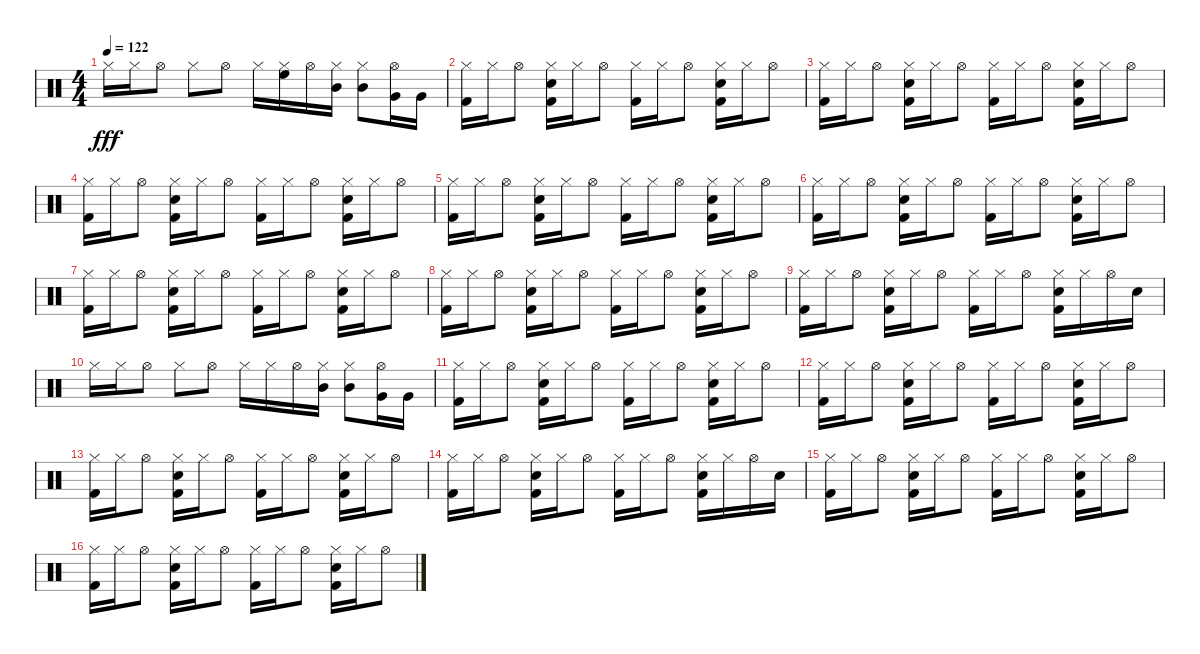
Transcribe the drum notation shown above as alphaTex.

\track "" {mute instrument percussion}
\staff {score}
\articulation defaults
\ts (4 4)
\tempo 122
\clef neutral
\ks c "Hi-Hat (closed)".16{dy fff} "Hi-Hat (closed)".16 "Hi-Hat (open)".8 "Hi-Hat (closed)".8 "Hi-Hat (open)".8 "Hi-Hat (closed)".16
("Hi-Hat (closed)" "High Floor Tom (hit)").16 "Hi-Hat (open)".16 ("Hi-Hat (closed)" "Mid Tom (hit)").16 ("Hi-Hat (closed)" "Mid Tom (hit)").8 ("Very Low Tom (hit)" "Hi-Hat (open)").16 "Very Low Tom (hit)".16 |
("Kick (hit) 2" "Hi-Hat (closed)").16 "Hi-Hat (closed)".16 "Hi-Hat (open)".8 ("Kick (hit) 2" "Snare (hit) 2" "Hi-Hat (closed)").16 "Hi-Hat (closed)".16 "Hi-Hat (open)".8 ("Kick (hit) 2" "Hi-Hat (closed)").16 "Hi-Hat (closed)".16 "Hi-Hat (open)".8 ("Kick (hit) 2" "Snare (hit) 2" "Hi-Hat (closed)").16 "Hi-Hat (closed)".16 "Hi-Hat (open)".8 |
("Kick (hit) 2" "Hi-Hat (closed)").16 "Hi-Hat (closed)".16 "Hi-Hat (open)".8 ("Kick (hit) 2" "Snare (hit) 2" "Hi-Hat (closed)").16 "Hi-Hat (closed)".16 "Hi-Hat (open)".8 ("Kick (hit) 2" "Hi-Hat (closed)").16 "Hi-Hat (closed)".16 "Hi-Hat (open)".8 ("Kick (hit) 2" "Snare (hit) 2" "Hi-Hat (closed)").16 "Hi-Hat (closed)".16 "Hi-Hat (open)".8 |
("Kick (hit) 2" "Hi-Hat (closed)").16 "Hi-Hat (closed)".16 "Hi-Hat (open)".8 ("Kick (hit) 2" "Snare (hit) 2" "Hi-Hat (closed)").16 "Hi-Hat (closed)".16 "Hi-Hat (open)".8 ("Kick (hit) 2" "Hi-Hat (closed)").16 "Hi-Hat (closed)".16 "Hi-Hat (open)".8 ("Kick (hit) 2" "Snare (hit) 2" "Hi-Hat (closed)").16 "Hi-Hat (closed)".16 "Hi-Hat (open)".8 |
("Kick (hit) 2" "Hi-Hat (closed)").16 "Hi-Hat (closed)".16 "Hi-Hat (open)".8 ("Kick (hit) 2" "Snare (hit) 2" "Hi-Hat (closed)").16 "Hi-Hat (closed)".16 "Hi-Hat (open)".8 ("Kick (hit) 2" "Hi-Hat (closed)").16 "Hi-Hat (closed)".16 "Hi-Hat (open)".8 ("Kick (hit) 2" "Snare (hit) 2" "Hi-Hat (closed)").16 "Hi-Hat (closed)".16 "Hi-Hat (open)".8 |
("Kick (hit) 2" "Hi-Hat (closed)").16 "Hi-Hat (closed)".16 "Hi-Hat (open)".8 ("Kick (hit) 2" "Snare (hit) 2" "Hi-Hat (closed)").16 "Hi-Hat (closed)".16 "Hi-Hat (open)".8 ("Kick (hit) 2" "Hi-Hat (closed)").16 "Hi-Hat (closed)".16 "Hi-Hat (open)".8 ("Kick (hit) 2" "Snare (hit) 2" "Hi-Hat (closed)").16 "Hi-Hat (closed)".16 "Hi-Hat (open)".8 |
("Kick (hit) 2" "Hi-Hat (closed)").16 "Hi-Hat (closed)".16 "Hi-Hat (open)".8 ("Kick (hit) 2" "Snare (hit) 2" "Hi-Hat (closed)").16 "Hi-Hat (closed)".16 "Hi-Hat (open)".8 ("Kick (hit) 2" "Hi-Hat (closed)").16 "Hi-Hat (closed)".16 "Hi-Hat (open)".8 ("Kick (hit) 2" "Snare (hit) 2" "Hi-Hat (closed)").16 "Hi-Hat (closed)".16 "Hi-Hat (open)".8 |
("Kick (hit) 2" "Hi-Hat (closed)").16 "Hi-Hat (closed)".16 "Hi-Hat (open)".8 ("Kick (hit) 2" "Snare (hit) 2" "Hi-Hat (closed)").16 "Hi-Hat (closed)".16 "Hi-Hat (open)".8 ("Kick (hit) 2" "Hi-Hat (closed)").16 "Hi-Hat (closed)".16 "Hi-Hat (open)".8 ("Kick (hit) 2" "Snare (hit) 2" "Hi-Hat (closed)").16 "Hi-Hat (closed)".16 "Hi-Hat (open)".8 |
("Kick (hit) 2" "Hi-Hat (closed)").16 "Hi-Hat (closed)".16 "Hi-Hat (open)".8 ("Kick (hit) 2" "Snare (hit) 2" "Hi-Hat (closed)").16 "Hi-Hat (closed)".16 "Hi-Hat (open)".8 ("Kick (hit) 2" "Hi-Hat (closed)").16 "Hi-Hat (closed)".16 "Hi-Hat (open)".8 ("Kick (hit) 2" "Snare (hit) 2" "Hi-Hat (closed)").16 "Hi-Hat (closed)".16 "Hi-Hat (open)".16 "Snare (hit) 2".16 |
"Hi-Hat (closed)".16 "Hi-Hat (closed)".16 "Hi-Hat (open)".8 "Hi-Hat (closed)".8 "Hi-Hat (open)".8 "Hi-Hat (closed)".16 "Hi-Hat (closed)".16 "Hi-Hat (open)".16 ("Hi-Hat (closed)" "Mid Tom (hit)").16 ("Hi-Hat (closed)" "Mid Tom (hit)").8 ("Very Low Tom (hit)" "Hi-Hat (open)").16 "Very Low Tom (hit)".16 |
("Kick (hit) 2" "Hi-Hat (closed)").16 "Hi-Hat (closed)".16 "Hi-Hat (open)".8 ("Kick (hit) 2" "Snare (hit) 2" "Hi-Hat (closed)").16 "Hi-Hat (closed)".16 "Hi-Hat (open)".8 ("Kick (hit) 2" "Hi-Hat (closed)").16 "Hi-Hat (closed)".16 "Hi-Hat (open)".8 ("Kick (hit) 2" "Snare (hit) 2" "Hi-Hat (closed)").16 "Hi-Hat (closed)".16 "Hi-Hat (open)".8 |
("Kick (hit) 2" "Hi-Hat (closed)").16 "Hi-Hat (closed)".16 "Hi-Hat (open)".8 ("Kick (hit) 2" "Snare (hit) 2" "Hi-Hat (closed)").16 "Hi-Hat (closed)".16 "Hi-Hat (open)".8 ("Kick (hit) 2" "Hi-Hat (closed)").16 "Hi-Hat (closed)".16 "Hi-Hat (open)".8 ("Kick (hit) 2" "Snare (hit) 2" "Hi-Hat (closed)").16 "Hi-Hat (closed)".16 "Hi-Hat (open)".8 |
("Kick (hit) 2" "Hi-Hat (closed)").16 "Hi-Hat (closed)".16 "Hi-Hat (open)".8 ("Kick (hit) 2" "Snare (hit) 2" "Hi-Hat (closed)").16 "Hi-Hat (closed)".16 "Hi-Hat (open)".8 ("Kick (hit) 2" "Hi-Hat (closed)").16 "Hi-Hat (closed)".16 "Hi-Hat (open)".8 ("Kick (hit) 2" "Snare (hit) 2" "Hi-Hat (closed)").16 "Hi-Hat (closed)".16 "Hi-Hat (open)".8 |
("Kick (hit) 2" "Hi-Hat (closed)").16 "Hi-Hat (closed)".16 "Hi-Hat (open)".8 ("Kick (hit) 2" "Snare (hit) 2" "Hi-Hat (closed)").16 "Hi-Hat (closed)".16 "Hi-Hat (open)".8 ("Kick (hit) 2" "Hi-Hat (closed)").16 "Hi-Hat (closed)".16 "Hi-Hat (open)".8 ("Kick (hit) 2" "Snare (hit) 2" "Hi-Hat (closed)").16 "Hi-Hat (closed)".16 "Hi-Hat (open)".16 "Snare (hit) 2".16 |
("Kick (hit) 2" "Hi-Hat (closed)").16 "Hi-Hat (closed)".16 "Hi-Hat (open)".8 ("Kick (hit) 2" "Snare (hit) 2" "Hi-Hat (closed)").16 "Hi-Hat (closed)".16 "Hi-Hat (open)".8 ("Kick (hit) 2" "Hi-Hat (closed)").16 "Hi-Hat (closed)".16 "Hi-Hat (open)".8 ("Kick (hit) 2" "Snare (hit) 2" "Hi-Hat (closed)").16 "Hi-Hat (closed)".16 "Hi-Hat (open)".8 |
("Kick (hit) 2" "Hi-Hat (closed)").16 "Hi-Hat (closed)".16 "Hi-Hat (open)".8 ("Kick (hit) 2" "Snare (hit) 2" "Hi-Hat (closed)").16 "Hi-Hat (closed)".16 "Hi-Hat (open)".8 ("Kick (hit) 2" "Hi-Hat (closed)").16 "Hi-Hat (closed)".16 "Hi-Hat (open)".8 ("Kick (hit) 2" "Snare (hit) 2" "Hi-Hat (closed)").16 "Hi-Hat (closed)".16 "Hi-Hat (open)".8
